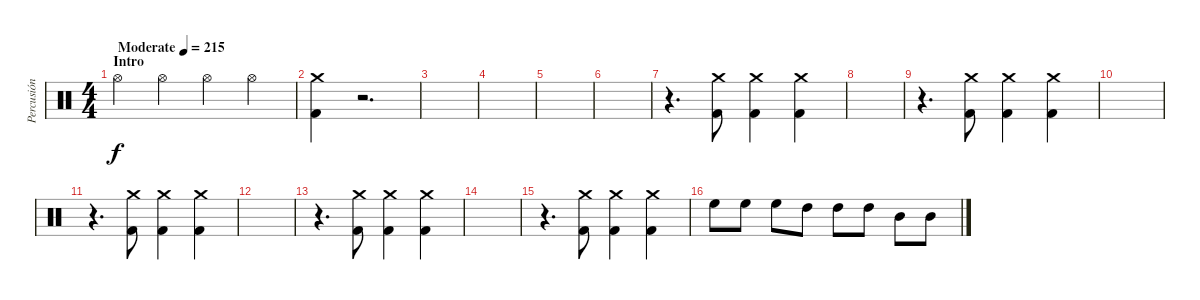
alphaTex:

\track ("Percusión" "Percusión") {instrument percussion}
\staff {score}
\articulation defaults
\ts (4 4)
\section ("" "Intro")
\tempo (215 "Moderate")
\clef neutral
\ks c "Hi-Hat (open)".4{dy f} "Hi-Hat (open)".4 "Hi-Hat (open)".4 "Hi-Hat (open)".4
|
("Crash medium (hit)" "Kick (hit) 2").4 r.2{d} |
|
|
|
|
r.4{d} ("Crash medium (hit)" "Kick (hit) 2").8 ("Crash medium (hit)" "Kick (hit) 2").4 ("Crash medium (hit)" "Kick (hit) 2").4 |
|
r.4{d} ("Crash medium (hit)" "Kick (hit) 2").8 ("Crash medium (hit)" "Kick (hit) 2").4 ("Crash medium (hit)" "Kick (hit) 2").4 |
|
r.4{d} ("Crash medium (hit)" "Kick (hit) 2").8 ("Crash medium (hit)" "Kick (hit) 2").4 ("Crash medium (hit)" "Kick (hit) 2").4 |
|
r.4{d} ("Crash medium (hit)" "Kick (hit) 2").8 ("Crash medium (hit)" "Kick (hit) 2").4 ("Crash medium (hit)" "Kick (hit) 2").4 |
|
r.4{d} ("Crash medium (hit)" "Kick (hit) 2").8 ("Crash medium (hit)" "Kick (hit) 2").4 ("Crash medium (hit)" "Kick (hit) 2").4 |
"High Floor Tom (hit)".8 "High Floor Tom (hit)".8 "High Floor Tom (hit)".8 "High Tom (hit)".8 "High Tom (hit)".8 "High Tom (hit)".8 "Mid Tom (hit)".8 "Mid Tom (hit)".8
